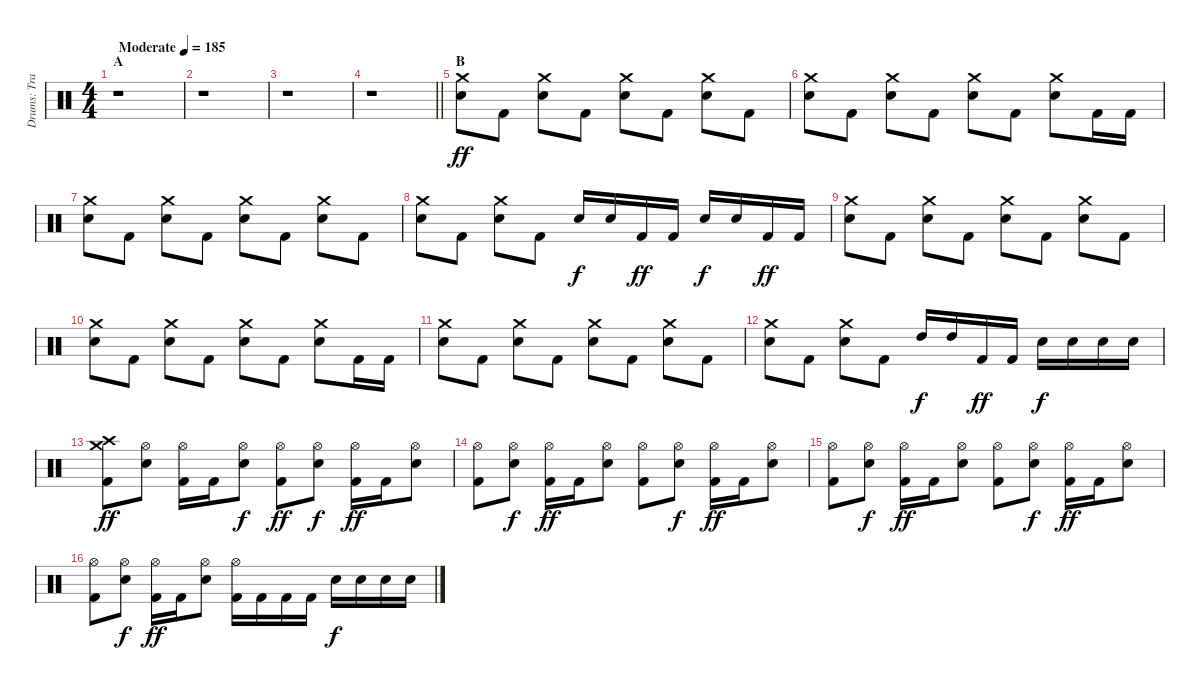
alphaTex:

\track ("Drums: Travis Clarke" "Drums: Tra") {instrument percussion}
\staff {score}
\articulation defaults
\ts (4 4)
\section ("" "A")
\tempo (185 "Moderate")
\clef neutral
\ks c
r.1{dy ff} |
r.1 |
r.1 |
\barLineRight lightlight
r.1 |
\section ("" "B")
("Snare (hit) 2" "Crash medium (hit)").8 "Kick (hit) 2".8 ("Snare (hit) 2" "Crash medium (hit)").8 "Kick (hit) 2".8 ("Snare (hit) 2" "Crash medium (hit)").8 "Kick (hit) 2".8 ("Snare (hit) 2" "Crash medium (hit)").8 "Kick (hit) 2".8 |
("Snare (hit) 2" "Crash medium (hit)").8 "Kick (hit) 2".8 ("Snare (hit) 2" "Crash medium (hit)").8 "Kick (hit) 2".8 ("Snare (hit) 2" "Crash medium (hit)").8 "Kick (hit) 2".8 ("Snare (hit) 2" "Crash medium (hit)").8 "Kick (hit) 2".16 "Kick (hit) 2".16 |
("Snare (hit) 2" "Crash medium (hit)").8 "Kick (hit) 2".8 ("Snare (hit) 2" "Crash medium (hit)").8 "Kick (hit) 2".8 ("Snare (hit) 2" "Crash medium (hit)").8 "Kick (hit) 2".8 ("Snare (hit) 2" "Crash medium (hit)").8 "Kick (hit) 2".8 |
("Snare (hit) 2" "Crash medium (hit)").8 "Kick (hit) 2".8 ("Snare (hit) 2" "Crash medium (hit)").8 "Kick (hit) 2".8 "Snare (hit) 2".16{dy f} "Snare (hit) 2".16 "Kick (hit) 2".16{dy ff} "Kick (hit) 2".16 "Snare (hit) 2".16{dy f} "Snare (hit) 2".16 "Kick (hit) 2".16{dy ff} "Kick (hit) 2".16 |
("Snare (hit) 2" "Crash medium (hit)").8 "Kick (hit) 2".8 ("Snare (hit) 2" "Crash medium (hit)").8 "Kick (hit) 2".8 ("Snare (hit) 2" "Crash medium (hit)").8 "Kick (hit) 2".8 ("Snare (hit) 2" "Crash medium (hit)").8 "Kick (hit) 2".8 |
("Snare (hit) 2" "Crash medium (hit)").8 "Kick (hit) 2".8 ("Snare (hit) 2" "Crash medium (hit)").8 "Kick (hit) 2".8 ("Snare (hit) 2" "Crash medium (hit)").8 "Kick (hit) 2".8 ("Snare (hit) 2" "Crash medium (hit)").8 "Kick (hit) 2".16 "Kick (hit) 2".16 |
("Snare (hit) 2" "Crash medium (hit)").8 "Kick (hit) 2".8 ("Snare (hit) 2" "Crash medium (hit)").8 "Kick (hit) 2".8 ("Snare (hit) 2" "Crash medium (hit)").8 "Kick (hit) 2".8 ("Snare (hit) 2" "Crash medium (hit)").8 "Kick (hit) 2".8 |
("Snare (hit) 2" "Crash medium (hit)").8 "Kick (hit) 2".8 ("Snare (hit) 2" "Crash medium (hit)").8 "Kick (hit) 2".8 "High Tom (hit)".16{dy f} "High Tom (hit)".16 "Kick (hit) 2".16{dy ff} "Kick (hit) 2".16 "Snare (hit) 2".16{dy f} "Snare (hit) 2".16 "Snare (hit) 2".16 "Snare (hit) 2".16 |
("Kick (hit) 2" "Crash high (hit)" "Crash medium (hit)").8{dy ff} ("Snare (hit) 2" "Hi-Hat (open)").8 ("Kick (hit) 2" "Hi-Hat (open)").16 "Kick (hit) 2".16 ("Snare (hit) 2" "Hi-Hat (open)").8{dy f} ("Kick (hit) 2" "Hi-Hat (open)").8{dy ff} ("Snare (hit) 2" "Hi-Hat (open)").8{dy f} ("Kick (hit) 2" "Hi-Hat (open)").16{dy ff} "Kick (hit) 2".16 ("Snare (hit) 2" "Hi-Hat (open)").8 |
("Kick (hit) 2" "Hi-Hat (open)").8 ("Snare (hit) 2" "Hi-Hat (open)").8{dy f} ("Kick (hit) 2" "Hi-Hat (open)").16{dy ff} "Kick (hit) 2".16 ("Snare (hit) 2" "Hi-Hat (open)").8 ("Kick (hit) 2" "Hi-Hat (open)").8 ("Snare (hit) 2" "Hi-Hat (open)").8{dy f} ("Kick (hit) 2" "Hi-Hat (open)").16{dy ff} "Kick (hit) 2".16 ("Snare (hit) 2" "Hi-Hat (open)").8 |
("Kick (hit) 2" "Hi-Hat (open)").8 ("Snare (hit) 2" "Hi-Hat (open)").8{dy f} ("Kick (hit) 2" "Hi-Hat (open)").16{dy ff} "Kick (hit) 2".16 ("Snare (hit) 2" "Hi-Hat (open)").8 ("Kick (hit) 2" "Hi-Hat (open)").8 ("Snare (hit) 2" "Hi-Hat (open)").8{dy f} ("Kick (hit) 2" "Hi-Hat (open)").16{dy ff} "Kick (hit) 2".16 ("Snare (hit) 2" "Hi-Hat (open)").8 |
("Kick (hit) 2" "Hi-Hat (open)").8 ("Snare (hit) 2" "Hi-Hat (open)").8{dy f} ("Kick (hit) 2" "Hi-Hat (open)").16{dy ff} "Kick (hit) 2".16 ("Snare (hit) 2" "Hi-Hat (open)").8 ("Kick (hit) 2" "Hi-Hat (open)").16 "Kick (hit) 2".16 "Kick (hit) 2".16 "Kick (hit) 2".16 "Snare (hit) 2".16{dy f} "Snare (hit) 2".16 "Snare (hit) 2".16 "Snare (hit) 2".16
